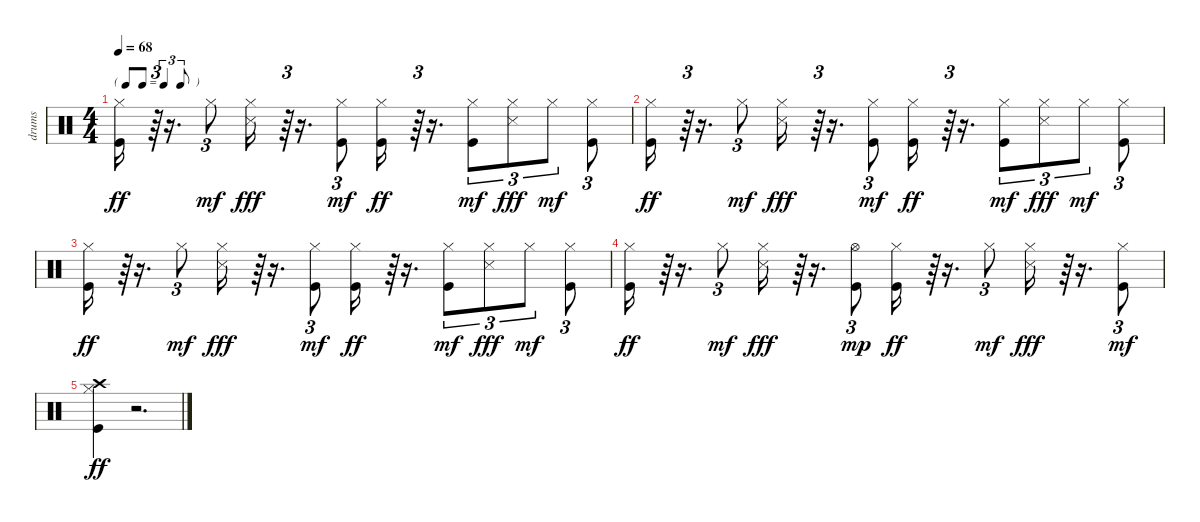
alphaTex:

\track ("drums" "drums") {instrument percussion}
\staff {score}
\articulation defaults
\ts (4 4)
\tf triplet8th
\tempo 68
\clef neutral
\ks c
("Kick (hit)" "Hi-Hat (closed)").16{dy ff} r.64{tu (3 2)} r.16{d} "Hi-Hat (closed)".8{tu (3 2) dy mf} ("Hi-Hat (closed)" "Snare (side stick) 3").16{dy fff} r.64{tu (3 2)} r.16{d} ("Kick (hit)" "Hi-Hat (closed)").8{tu (3 2) dy mf} ("Kick (hit)" "Hi-Hat (closed)").16{dy ff} r.64{tu (3 2)} r.16{d} ("Kick (hit)" "Hi-Hat (closed)").8{tu (3 2) dy mf} ("Hi-Hat (closed)" "Snare (side stick) 3").8{tu (3 2) dy fff} "Hi-Hat (closed)".8{tu (3 2) dy mf} ("Kick (hit)" "Hi-Hat (closed)").8{tu (3 2)} |
("Kick (hit)" "Hi-Hat (closed)").16{dy ff} r.64{tu (3 2)} r.16{d} "Hi-Hat (closed)".8{tu (3 2) dy mf} ("Hi-Hat (closed)" "Snare (side stick) 3").16{dy fff} r.64{tu (3 2)} r.16{d} ("Kick (hit)" "Hi-Hat (closed)").8{tu (3 2) dy mf} ("Kick (hit)" "Hi-Hat (closed)").16{dy ff} r.64{tu (3 2)} r.16{d} ("Kick (hit)" "Hi-Hat (closed)").8{tu (3 2) dy mf} ("Hi-Hat (closed)" "Snare (side stick) 3").8{tu (3 2) dy fff} "Hi-Hat (closed)".8{tu (3 2) dy mf} ("Kick (hit)" "Hi-Hat (closed)").8{tu (3 2)} |
("Kick (hit)" "Hi-Hat (closed)").16{dy ff} r.64{tu (3 2)} r.16{d} "Hi-Hat (closed)".8{tu (3 2) dy mf} ("Hi-Hat (closed)" "Snare (side stick) 3").16{dy fff} r.64{tu (3 2)} r.16{d} ("Kick (hit)" "Hi-Hat (closed)").8{tu (3 2) dy mf} ("Kick (hit)" "Hi-Hat (closed)").16{dy ff} r.64{tu (3 2)} r.16{d} ("Kick (hit)" "Hi-Hat (closed)").8{tu (3 2) dy mf} ("Hi-Hat (closed)" "Snare (side stick) 3").8{tu (3 2) dy fff} "Hi-Hat (closed)".8{tu (3 2) dy mf} ("Kick (hit)" "Hi-Hat (closed)").8{tu (3 2)} |
("Kick (hit)" "Hi-Hat (closed)").16{dy ff} r.64{tu (3 2)} r.16{d} "Hi-Hat (closed)".8{tu (3 2) dy mf} ("Hi-Hat (closed)" "Snare (side stick) 3").16{dy fff} r.64{tu (3 2)} r.16{d} ("Kick (hit)" "Hi-Hat (open)").8{tu (3 2) dy mp} ("Kick (hit)" "Hi-Hat (closed)").16{dy ff} r.64{tu (3 2)} r.16{d} "Hi-Hat (closed)".8{tu (3 2) dy mf} ("Hi-Hat (closed)" "Snare (side stick) 3").16{dy fff} r.64{tu (3 2)} r.16{d} ("Kick (hit)" "Hi-Hat (closed)").8{tu (3 2) dy mf} |
("Kick (hit)" "Hi-Hat (closed)" "Crash high (hit)").4{dy ff} r.2{d}
